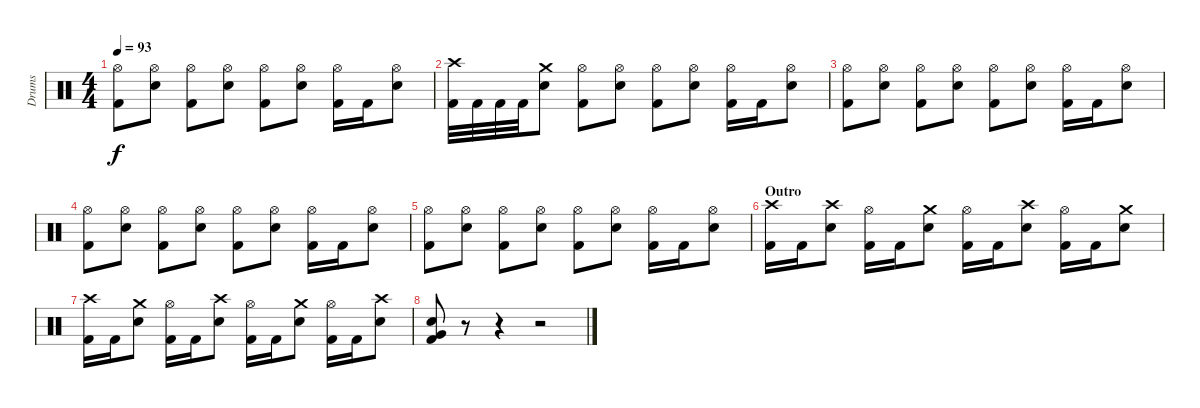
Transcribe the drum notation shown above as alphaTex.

\track ("Drums" "Drums") {instrument percussion}
\staff {score}
\articulation defaults
\ts (4 4)
\tempo 93
\clef neutral
\ks c
("Hi-Hat (open)" "Kick (hit) 2").8{dy f} ("Hi-Hat (open)" "Electric Snare (hit)").8 ("Hi-Hat (open)" "Kick (hit) 2").8 ("Hi-Hat (open)" "Electric Snare (hit)").8 ("Hi-Hat (open)" "Kick (hit) 2").8 ("Hi-Hat (open)" "Electric Snare (hit)").8 ("Hi-Hat (open)" "Kick (hit) 2").16 "Kick (hit) 2".16 ("Hi-Hat (open)" "Electric Snare (hit)").8 |
("Crash high (hit)" "Kick (hit) 2").32 "Kick (hit) 2".32 "Kick (hit) 2".32 "Kick (hit) 2".32 ("Crash medium (hit)" "Electric Snare (hit)").8 ("Hi-Hat (open)" "Kick (hit) 2").8 ("Hi-Hat (open)" "Electric Snare (hit)").8 ("Hi-Hat (open)" "Kick (hit) 2").8 ("Hi-Hat (open)" "Electric Snare (hit)").8 ("Hi-Hat (open)" "Kick (hit) 2").16 "Kick (hit) 2".16 ("Hi-Hat (open)" "Electric Snare (hit)").8 |
("Hi-Hat (open)" "Kick (hit) 2").8 ("Hi-Hat (open)" "Electric Snare (hit)").8 ("Hi-Hat (open)" "Kick (hit) 2").8 ("Hi-Hat (open)" "Electric Snare (hit)").8 ("Hi-Hat (open)" "Kick (hit) 2").8 ("Hi-Hat (open)" "Electric Snare (hit)").8 ("Hi-Hat (open)" "Kick (hit) 2").16 "Kick (hit) 2".16 ("Hi-Hat (open)" "Electric Snare (hit)").8 |
("Hi-Hat (open)" "Kick (hit) 2").8 ("Hi-Hat (open)" "Electric Snare (hit)").8 ("Hi-Hat (open)" "Kick (hit) 2").8 ("Hi-Hat (open)" "Electric Snare (hit)").8 ("Hi-Hat (open)" "Kick (hit) 2").8 ("Hi-Hat (open)" "Electric Snare (hit)").8 ("Hi-Hat (open)" "Kick (hit) 2").16 "Kick (hit) 2".16 ("Hi-Hat (open)" "Electric Snare (hit)").8 |
("Hi-Hat (open)" "Kick (hit) 2").8 ("Hi-Hat (open)" "Electric Snare (hit)").8 ("Hi-Hat (open)" "Kick (hit) 2").8 ("Hi-Hat (open)" "Electric Snare (hit)").8 ("Hi-Hat (open)" "Kick (hit) 2").8 ("Hi-Hat (open)" "Electric Snare (hit)").8 ("Hi-Hat (open)" "Kick (hit) 2").16 "Kick (hit) 2".16 ("Hi-Hat (open)" "Electric Snare (hit)").8 |
\section ("" "Outro")
("Crash high (hit)" "Kick (hit) 2").16 "Kick (hit) 2".16 ("Crash high (hit)" "Electric Snare (hit)").8 ("Hi-Hat (open)" "Kick (hit) 2").16 "Kick (hit) 2".16 ("Crash medium (hit)" "Electric Snare (hit)").8 ("Hi-Hat (open)" "Kick (hit) 2").16 "Kick (hit) 2".16 ("Crash high (hit)" "Electric Snare (hit)").8 ("Hi-Hat (open)" "Kick (hit) 2").16 "Kick (hit) 2".16 ("Crash medium (hit)" "Electric Snare (hit)").8 |
("Crash high (hit)" "Kick (hit) 2").16 "Kick (hit) 2".16 ("Crash medium (hit)" "Electric Snare (hit)").8 ("Hi-Hat (open)" "Kick (hit) 2").16 "Kick (hit) 2".16 ("Crash high (hit)" "Electric Snare (hit)").8 ("Hi-Hat (open)" "Kick (hit) 2").16 "Kick (hit) 2".16 ("Crash medium (hit)" "Electric Snare (hit)").8 ("Hi-Hat (open)" "Kick (hit) 2").16 "Kick (hit) 2".16 ("Crash high (hit)" "Electric Snare (hit)").8 |
("Electric Snare (hit)" "Very Low Tom (hit)" "Kick (hit) 2").8 r.8 r.4 r.2
